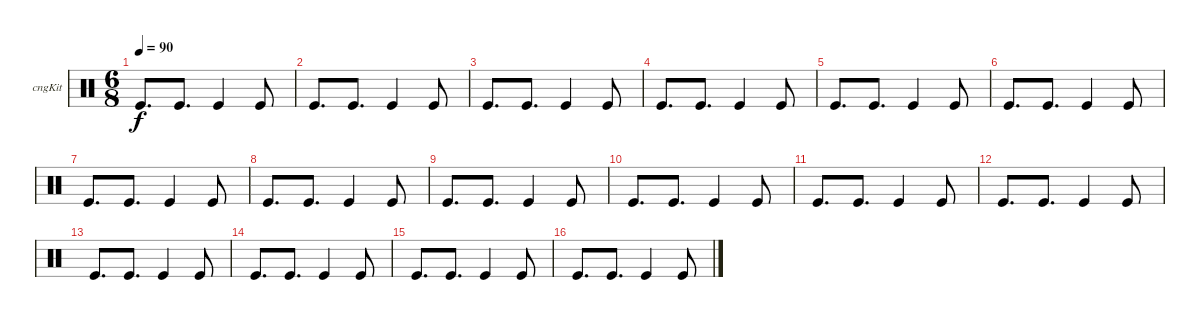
\defaultSystemsLayout 4
\bracketExtendMode groupsimilarinstruments
\firstSystemTrackNameOrientation horizontal
\otherSystemsTrackNameOrientation horizontal
\track ("Congas" "cngKit") {multiBarRest instrument percussion}
\staff {score}
\articulation defaults
\ts (6 8)
\tempo 90
\clef neutral
\ks c "Kick (hit)".8{d dy f} "Kick (hit)".8{d} "Kick (hit)".4 "Kick (hit)".8
|
"Kick (hit)".8{d} "Kick (hit)".8{d} "Kick (hit)".4 "Kick (hit)".8 |
"Kick (hit)".8{d} "Kick (hit)".8{d} "Kick (hit)".4 "Kick (hit)".8 |
"Kick (hit)".8{d} "Kick (hit)".8{d} "Kick (hit)".4 "Kick (hit)".8 |
"Kick (hit)".8{d} "Kick (hit)".8{d} "Kick (hit)".4 "Kick (hit)".8 |
"Kick (hit)".8{d} "Kick (hit)".8{d} "Kick (hit)".4 "Kick (hit)".8 |
"Kick (hit)".8{d} "Kick (hit)".8{d} "Kick (hit)".4 "Kick (hit)".8 |
"Kick (hit)".8{d} "Kick (hit)".8{d} "Kick (hit)".4 "Kick (hit)".8 |
"Kick (hit)".8{d} "Kick (hit)".8{d} "Kick (hit)".4 "Kick (hit)".8 |
"Kick (hit)".8{d} "Kick (hit)".8{d} "Kick (hit)".4 "Kick (hit)".8 |
"Kick (hit)".8{d} "Kick (hit)".8{d} "Kick (hit)".4 "Kick (hit)".8 |
"Kick (hit)".8{d} "Kick (hit)".8{d} "Kick (hit)".4 "Kick (hit)".8 |
"Kick (hit)".8{d} "Kick (hit)".8{d} "Kick (hit)".4 "Kick (hit)".8 |
"Kick (hit)".8{d} "Kick (hit)".8{d} "Kick (hit)".4 "Kick (hit)".8 |
"Kick (hit)".8{d} "Kick (hit)".8{d} "Kick (hit)".4 "Kick (hit)".8 |
"Kick (hit)".8{d} "Kick (hit)".8{d} "Kick (hit)".4 "Kick (hit)".8
